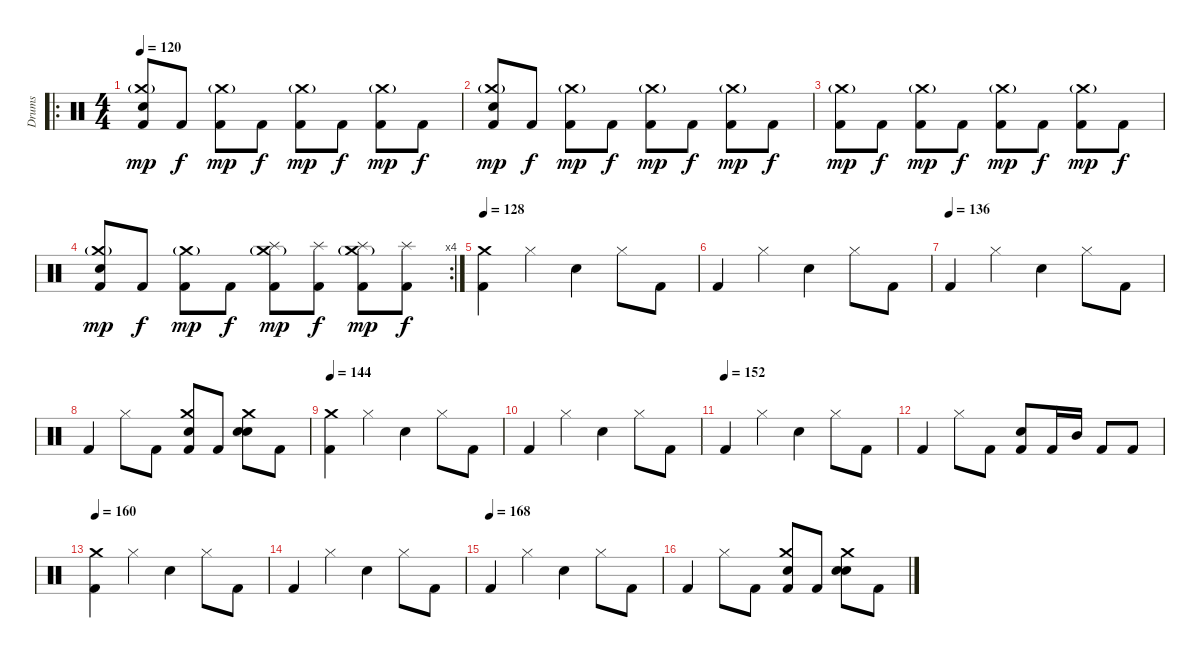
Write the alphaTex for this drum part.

\track ("Drums" "Drums") {instrument percussion}
\staff {score}
\articulation defaults
\ro
\ts (4 4)
\tempo 120
\clef neutral
\ks c
("Kick (hit) 2" "Crash medium (hit)"{g} "Snare (hit) 2").8{dy mp} "Kick (hit) 2".8{dy f} ("Kick (hit) 2" "Crash medium (hit)"{g}).8{dy mp} "Kick (hit) 2".8{dy f} ("Kick (hit) 2" "Crash medium (hit)"{g}).8{dy mp} "Kick (hit) 2".8{dy f} ("Kick (hit) 2" "Crash medium (hit)"{g}).8{dy mp} "Kick (hit) 2".8{dy f} |
("Kick (hit) 2" "Snare (hit) 2" "Crash medium (hit)"{g}).8{dy mp} "Kick (hit) 2".8{dy f} ("Kick (hit) 2" "Crash medium (hit)"{g}).8{dy mp} "Kick (hit) 2".8{dy f} ("Kick (hit) 2" "Crash medium (hit)"{g}).8{dy mp} "Kick (hit) 2".8{dy f} ("Kick (hit) 2" "Crash medium (hit)"{g}).8{dy mp} "Kick (hit) 2".8{dy f} |
("Kick (hit) 2" "Crash medium (hit)"{g}).8{dy mp} "Kick (hit) 2".8{dy f} ("Kick (hit) 2" "Crash medium (hit)"{g}).8{dy mp} "Kick (hit) 2".8{dy f} ("Kick (hit) 2" "Crash medium (hit)"{g}).8{dy mp} "Kick (hit) 2".8{dy f} ("Kick (hit) 2" "Crash medium (hit)"{g}).8{dy mp} "Kick (hit) 2".8{dy f} |
\rc 4
("Kick (hit) 2" "Snare (hit) 2" "Crash medium (hit)"{g}).8{dy mp} "Kick (hit) 2".8{dy f} ("Kick (hit) 2" "Crash medium (hit)"{g}).8{dy mp} "Kick (hit) 2".8{dy f} ("Kick (hit) 2" "Crash medium (hit)"{g} "Splash (hit)").8{dy mp} ("Kick (hit) 2" "Splash (hit)").8{dy f} ("Kick (hit) 2" "Crash medium (hit)"{g} "Splash (hit)").8{dy mp} ("Kick (hit) 2" "Splash (hit)").8{dy f} |
\tempo 128
("Crash medium (hit)" "Kick (hit) 2").4 "Hi-Hat (closed)".4 "Snare (hit) 2".4 "Hi-Hat (closed)".8 "Kick (hit) 2".8 |
"Kick (hit) 2".4 "Hi-Hat (closed)".4 "Snare (hit) 2".4 "Hi-Hat (closed)".8 "Kick (hit) 2".8 |
\tempo (136)
"Kick (hit) 2".4 "Hi-Hat (closed)".4 "Snare (hit) 2".4 "Hi-Hat (closed)".8 "Kick (hit) 2".8 |
"Kick (hit) 2".4 "Hi-Hat (closed)".8 "Kick (hit) 2".8 ("Snare (hit) 2" "Kick (hit) 2" "Crash medium (hit)").8 "Kick (hit) 2".8 ("Snare (hit) 2" "Crash medium (hit)" "Snare (hit) 2").8 "Kick (hit) 2".8 |
\tempo 144
("Crash medium (hit)" "Kick (hit) 2").4 "Hi-Hat (closed)".4 "Snare (hit) 2".4 "Hi-Hat (closed)".8 "Kick (hit) 2".8 |
"Kick (hit) 2".4 "Hi-Hat (closed)".4 "Snare (hit) 2".4 "Hi-Hat (closed)".8 "Kick (hit) 2".8 |
\tempo (152)
"Kick (hit) 2".4 "Hi-Hat (closed)".4 "Snare (hit) 2".4 "Hi-Hat (closed)".8 "Kick (hit) 2".8 |
"Kick (hit) 2".4 "Hi-Hat (closed)".8 "Kick (hit) 2".8 ("Snare (hit) 2" "Kick (hit) 2").8 "Kick (hit) 2".16 "Mid Tom (hit)".16 "Kick (hit) 2".8 "Kick (hit) 2".8 |
\tempo 160
("Crash medium (hit)" "Kick (hit) 2").4 "Hi-Hat (closed)".4 "Snare (hit) 2".4 "Hi-Hat (closed)".8 "Kick (hit) 2".8 |
"Kick (hit) 2".4 "Hi-Hat (closed)".4 "Snare (hit) 2".4 "Hi-Hat (closed)".8 "Kick (hit) 2".8 |
\tempo (168)
"Kick (hit) 2".4 "Hi-Hat (closed)".4 "Snare (hit) 2".4 "Hi-Hat (closed)".8 "Kick (hit) 2".8 |
"Kick (hit) 2".4 "Hi-Hat (closed)".8 "Kick (hit) 2".8 ("Snare (hit) 2" "Kick (hit) 2" "Crash medium (hit)").8 "Kick (hit) 2".8 ("Snare (hit) 2" "Crash medium (hit)" "Snare (hit) 2").8 "Kick (hit) 2".8
